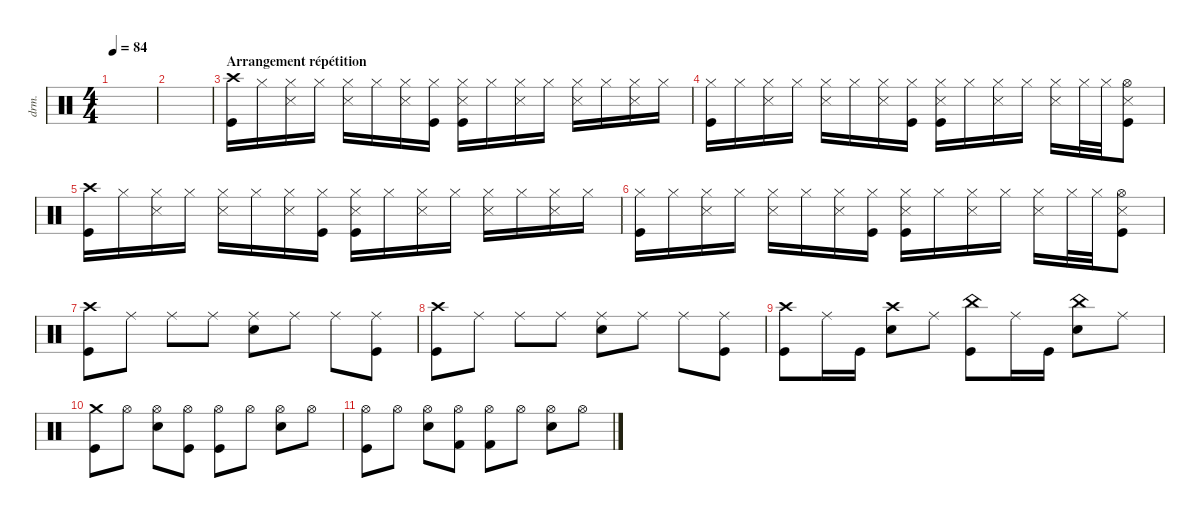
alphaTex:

\defaultSystemsLayout 4
\hideDynamics
\bracketExtendMode nobrackets
\otherSystemsTrackNameOrientation horizontal
\track ("Drumkit" "drm.") {instrument percussion}
\staff {score}
\articulation defaults
\ts (4 4)
\tempo 84
\clef neutral
\ks aminor
|
|
\section ("" "Arrangement répétition")
("Kick (hit)" "Crash high (hit)").16{dy f beam Down} "Hi-Hat (closed)".16{dy p beam Down} ("Hi-Hat (closed)" "Snare (side stick) 3").16{dy f beam Down} "Hi-Hat (closed)".16{dy mp beam Down} ("Hi-Hat (closed)" "Snare (side stick) 3").16{dy f beam Down} "Hi-Hat (closed)".16{beam Down} ("Hi-Hat (closed)" "Snare (side stick) 3").16{beam Down} ("Hi-Hat (closed)" "Kick (hit)").16{dy mp beam Down} ("Hi-Hat (closed)" "Kick (hit)" "Snare (side stick) 3").16{dy f beam Down} "Hi-Hat (closed)".16{dy mp beam Down} ("Hi-Hat (closed)" "Snare (side stick) 3").16{dy f beam Down} "Hi-Hat (closed)".16{dy mp beam Down} ("Hi-Hat (closed)" "Snare (side stick) 3").16{dy f beam Down} "Hi-Hat (closed)".16{dy mp beam Down} ("Hi-Hat (closed)" "Snare (side stick) 3").16{dy f beam Down} "Hi-Hat (closed)".16{dy mp beam Down} |
("Kick (hit)" "Hi-Hat (closed)").16{dy f beam Down} "Hi-Hat (closed)".16{dy p beam Down} ("Hi-Hat (closed)" "Snare (side stick) 3").16{dy f beam Down} "Hi-Hat (closed)".16{dy mp beam Down} ("Hi-Hat (closed)" "Snare (side stick) 3").16{dy f beam Down} "Hi-Hat (closed)".16{beam Down} ("Hi-Hat (closed)" "Snare (side stick) 3").16{beam Down} ("Hi-Hat (closed)" "Kick (hit)").16{dy mp beam Down} ("Hi-Hat (closed)" "Kick (hit)" "Snare (side stick) 3").16{dy f beam Down} "Hi-Hat (closed)".16{dy mp beam Down} ("Hi-Hat (closed)" "Snare (side stick) 3").16{dy f beam Down} "Hi-Hat (closed)".16{dy mp beam Down} ("Hi-Hat (closed)" "Snare (side stick) 3").16{dy f beam Down} "Hi-Hat (closed)".32{dy mp beam Down} "Hi-Hat (closed)".32{beam Down} ("Kick (hit)" "Hi-Hat (open)" "Snare (side stick) 3").8{dy f beam Down} |
("Kick (hit)" "Crash high (hit)").16{beam Down} "Hi-Hat (closed)".16{dy p beam Down} ("Hi-Hat (closed)" "Snare (side stick) 3").16{dy f beam Down} "Hi-Hat (closed)".16{dy mp beam Down} ("Hi-Hat (closed)" "Snare (side stick) 3").16{dy f beam Down} "Hi-Hat (closed)".16{beam Down} ("Hi-Hat (closed)" "Snare (side stick) 3").16{beam Down} ("Hi-Hat (closed)" "Kick (hit)").16{dy mp beam Down} ("Hi-Hat (closed)" "Kick (hit)" "Snare (side stick) 3").16{dy f beam Down} "Hi-Hat (closed)".16{dy mp beam Down} ("Hi-Hat (closed)" "Snare (side stick) 3").16{dy f beam Down} "Hi-Hat (closed)".16{dy mp beam Down} ("Hi-Hat (closed)" "Snare (side stick) 3").16{dy f beam Down} "Hi-Hat (closed)".16{dy mp beam Down} ("Hi-Hat (closed)" "Snare (side stick) 3").16{dy f beam Down} "Hi-Hat (closed)".16{dy mp beam Down} |
("Kick (hit)" "Hi-Hat (closed)").16{dy f beam Down} "Hi-Hat (closed)".16{dy p beam Down} ("Hi-Hat (closed)" "Snare (side stick) 3").16{dy f beam Down} "Hi-Hat (closed)".16{dy mp beam Down} ("Hi-Hat (closed)" "Snare (side stick) 3").16{dy f beam Down} "Hi-Hat (closed)".16{beam Down} ("Hi-Hat (closed)" "Snare (side stick) 3").16{beam Down} ("Hi-Hat (closed)" "Kick (hit)").16{dy mp beam Down} ("Hi-Hat (closed)" "Kick (hit)" "Snare (side stick) 3").16{dy f beam Down} "Hi-Hat (closed)".16{dy mp beam Down} ("Hi-Hat (closed)" "Snare (side stick) 3").16{dy f beam Down} "Hi-Hat (closed)".16{dy mp beam Down} ("Hi-Hat (closed)" "Snare (side stick) 3").16{dy f beam Down} "Hi-Hat (closed)".32{dy mp beam Down} "Hi-Hat (closed)".32{beam Down} ("Kick (hit)" "Hi-Hat (open)" "Snare (side stick) 3").8{dy f beam Down} |
("Crash high (hit)" "Kick (hit)").8{dy mf beam Down} "Ride (middle)".8{beam Down} "Ride (middle)".8{beam Down} "Ride (middle)".8{beam Down} ("Ride (middle)" "Snare (hit) 2").8{beam Down} "Ride (middle)".8{beam Down} "Ride (middle)".8{beam Down} ("Ride (middle)" "Kick (hit)").8{beam Down} |
("Crash high (hit)" "Kick (hit)").8{beam Down} "Ride (middle)".8{beam Down} "Ride (middle)".8{beam Down} "Ride (middle)".8{beam Down} ("Ride (middle)" "Snare (hit) 2").8{beam Down} "Ride (middle)".8{beam Down} "Ride (middle)".8{beam Down} ("Ride (middle)" "Kick (hit)").8{beam Down} |
("Crash high (hit)" "Kick (hit)").8{dy f beam Down} "Ride (middle)".16{beam Down} "Kick (hit)".16{beam Down} ("Snare (hit) 2" "Crash high (hit)").8{beam Down} "Ride (middle)".8{beam Down} ("Kick (hit)" "China (hit)").8{beam Down} "Ride (middle)".16{beam Down} "Kick (hit)".16{beam Down} ("Snare (hit) 2" "China (hit)").8{beam Down} "Ride (middle)".8{beam Down} |
("Crash medium (hit)" "Kick (hit)").8{beam Down} "Hi-Hat (open)".8{dy mf beam Down} ("Hi-Hat (open)" "Snare (hit) 2").8{beam Down} ("Hi-Hat (open)" "Kick (hit)").8{beam Down} ("Hi-Hat (open)" "Kick (hit)").8{beam Down} "Hi-Hat (open)".8{beam Down} ("Hi-Hat (open)" "Snare (hit) 2").8{beam Down} "Hi-Hat (open)".8{beam Down} |
("Hi-Hat (open)" "Kick (hit)").8{beam Down} "Hi-Hat (open)".8{beam Down} ("Hi-Hat (open)" "Snare (hit) 2").8{beam Down} ("Hi-Hat (open)" "Kick (hit) 2").8{beam Down} ("Hi-Hat (open)" "Kick (hit) 2").8{beam Down} "Hi-Hat (open)".8{beam Down} ("Hi-Hat (open)" "Snare (hit) 2").8{beam Down} "Hi-Hat (open)".8{beam Down}
